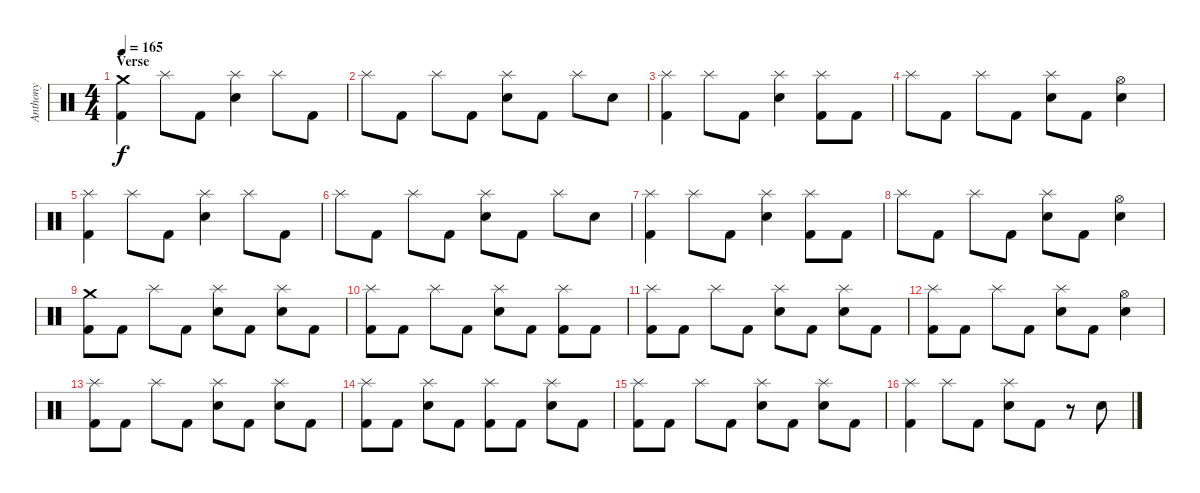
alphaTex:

\track ("Anthony" "Anthony") {instrument percussion}
\staff {score}
\articulation defaults
\ts (4 4)
\section ("" "Verse")
\tempo 165
\clef neutral
\ks c
("Crash medium (hit)" "Kick (hit) 2").4{dy f} "Splash (hit)".8 "Kick (hit) 2".8 ("Splash (hit)" "Electric Snare (hit)").4 "Splash (hit)".8 "Kick (hit) 2".8 |
"Splash (hit)".8 "Kick (hit) 2".8 "Splash (hit)".8 "Kick (hit) 2".8 ("Splash (hit)" "Electric Snare (hit)").8 "Kick (hit) 2".8 "Splash (hit)".8 "Electric Snare (hit)".8 |
("Splash (hit)" "Kick (hit) 2").4 "Splash (hit)".8 "Kick (hit) 2".8 ("Splash (hit)" "Electric Snare (hit)").4 ("Splash (hit)" "Kick (hit) 2").8 "Kick (hit) 2".8 |
"Splash (hit)".8 "Kick (hit) 2".8 "Splash (hit)".8 "Kick (hit) 2".8 ("Splash (hit)" "Electric Snare (hit)").8 "Kick (hit) 2".8 ("Hi-Hat (open)" "Electric Snare (hit)").4 |
("Splash (hit)" "Kick (hit) 2").4 "Splash (hit)".8 "Kick (hit) 2".8 ("Splash (hit)" "Electric Snare (hit)").4 "Splash (hit)".8 "Kick (hit) 2".8 |
"Splash (hit)".8 "Kick (hit) 2".8 "Splash (hit)".8 "Kick (hit) 2".8 ("Splash (hit)" "Electric Snare (hit)").8 "Kick (hit) 2".8 "Splash (hit)".8 "Electric Snare (hit)".8 |
("Splash (hit)" "Kick (hit) 2").4 "Splash (hit)".8 "Kick (hit) 2".8 ("Splash (hit)" "Electric Snare (hit)").4 ("Splash (hit)" "Kick (hit) 2").8 "Kick (hit) 2".8 |
"Splash (hit)".8 "Kick (hit) 2".8 "Splash (hit)".8 "Kick (hit) 2".8 ("Splash (hit)" "Electric Snare (hit)").8 "Kick (hit) 2".8 ("Hi-Hat (open)" "Electric Snare (hit)").4 |
("Crash medium (hit)" "Kick (hit) 2").8 "Kick (hit) 2".8 "Splash (hit)".8 "Kick (hit) 2".8 ("Splash (hit)" "Electric Snare (hit)").8 "Kick (hit) 2".8 ("Splash (hit)" "Electric Snare (hit)").8 "Kick (hit) 2".8 |
("Splash (hit)" "Kick (hit) 2").8 "Kick (hit) 2".8 "Splash (hit)".8 "Kick (hit) 2".8 ("Splash (hit)" "Electric Snare (hit)").8 "Kick (hit) 2".8 ("Splash (hit)" "Kick (hit) 2").8 "Kick (hit) 2".8 |
("Splash (hit)" "Kick (hit) 2").8 "Kick (hit) 2".8 "Splash (hit)".8 "Kick (hit) 2".8 ("Splash (hit)" "Electric Snare (hit)").8 "Kick (hit) 2".8 ("Splash (hit)" "Electric Snare (hit)").8 "Kick (hit) 2".8 |
("Splash (hit)" "Kick (hit) 2").8 "Kick (hit) 2".8 "Splash (hit)".8 "Kick (hit) 2".8 ("Splash (hit)" "Electric Snare (hit)").8 "Kick (hit) 2".8 ("Hi-Hat (open)" "Electric Snare (hit)").4 |
("Splash (hit)" "Kick (hit) 2").8 "Kick (hit) 2".8 "Splash (hit)".8 "Kick (hit) 2".8 ("Splash (hit)" "Electric Snare (hit)").8 "Kick (hit) 2".8 ("Splash (hit)" "Electric Snare (hit)").8 "Kick (hit) 2".8 |
("Splash (hit)" "Kick (hit) 2").8 "Kick (hit) 2".8 ("Splash (hit)" "Electric Snare (hit)").8 "Kick (hit) 2".8 ("Splash (hit)" "Kick (hit) 2").8 "Kick (hit) 2".8 ("Splash (hit)" "Electric Snare (hit)").8 "Kick (hit) 2".8 |
("Splash (hit)" "Kick (hit) 2").8 "Kick (hit) 2".8 "Splash (hit)".8 "Kick (hit) 2".8 ("Splash (hit)" "Electric Snare (hit)").8 "Kick (hit) 2".8 ("Splash (hit)" "Electric Snare (hit)").8 "Kick (hit) 2".8 |
("Splash (hit)" "Kick (hit) 2").4 "Splash (hit)".8 "Kick (hit) 2".8 ("Splash (hit)" "Electric Snare (hit)").8 "Kick (hit) 2".8 r.8 "Electric Snare (hit)".8
